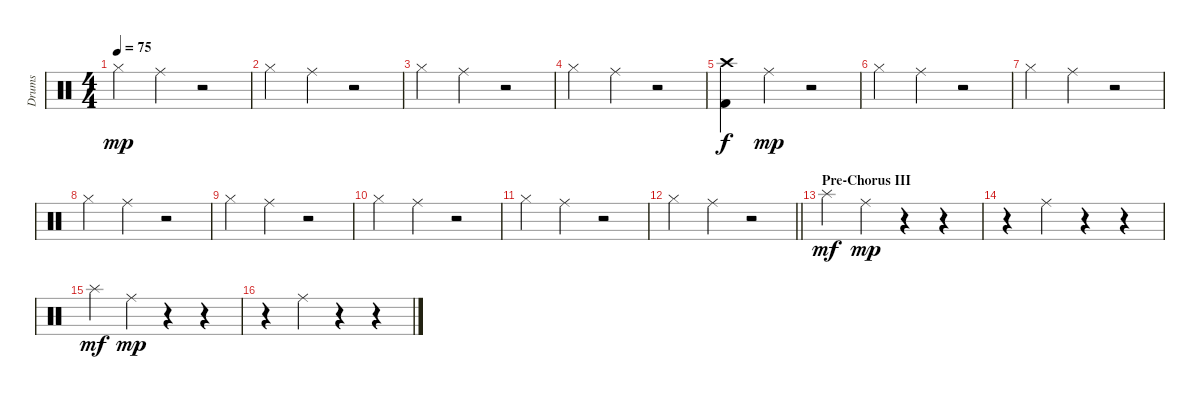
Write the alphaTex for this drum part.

\track ("Drums" "Drums") {instrument percussion}
\staff {score}
\articulation defaults
\ts (4 4)
\tempo 75
\clef neutral
\ks c "Hi-Hat (closed)".4{dy mp} "Ride (middle)".4
r.2 |
"Hi-Hat (closed)".4 "Ride (middle)".4 r.2 |
"Hi-Hat (closed)".4 "Ride (middle)".4 r.2 |
"Hi-Hat (closed)".4 "Ride (middle)".4 r.2 |
("Crash high (hit)" "Kick (hit) 2").4{dy f} "Ride (middle)".4{dy mp} r.2 |
"Hi-Hat (closed)".4 "Ride (middle)".4 r.2 |
"Hi-Hat (closed)".4 "Ride (middle)".4 r.2 |
"Hi-Hat (closed)".4 "Ride (middle)".4 r.2 |
"Hi-Hat (closed)".4 "Ride (middle)".4 r.2 |
"Hi-Hat (closed)".4 "Ride (middle)".4 r.2 |
"Hi-Hat (closed)".4 "Ride (middle)".4 r.2 |
\barLineRight lightlight "Hi-Hat (closed)".4 "Ride (middle)".4
r.2 |
\section ("" "Pre-Chorus III")
"Splash (hit)".4{dy mf} "Ride (middle)".4{dy mp} r.4 r.4 |
r.4 "Ride (middle)".4 r.4 r.4 |
"Splash (hit)".4{dy mf} "Ride (middle)".4{dy mp} r.4 r.4 |
r.4 "Ride (middle)".4 r.4 r.4
